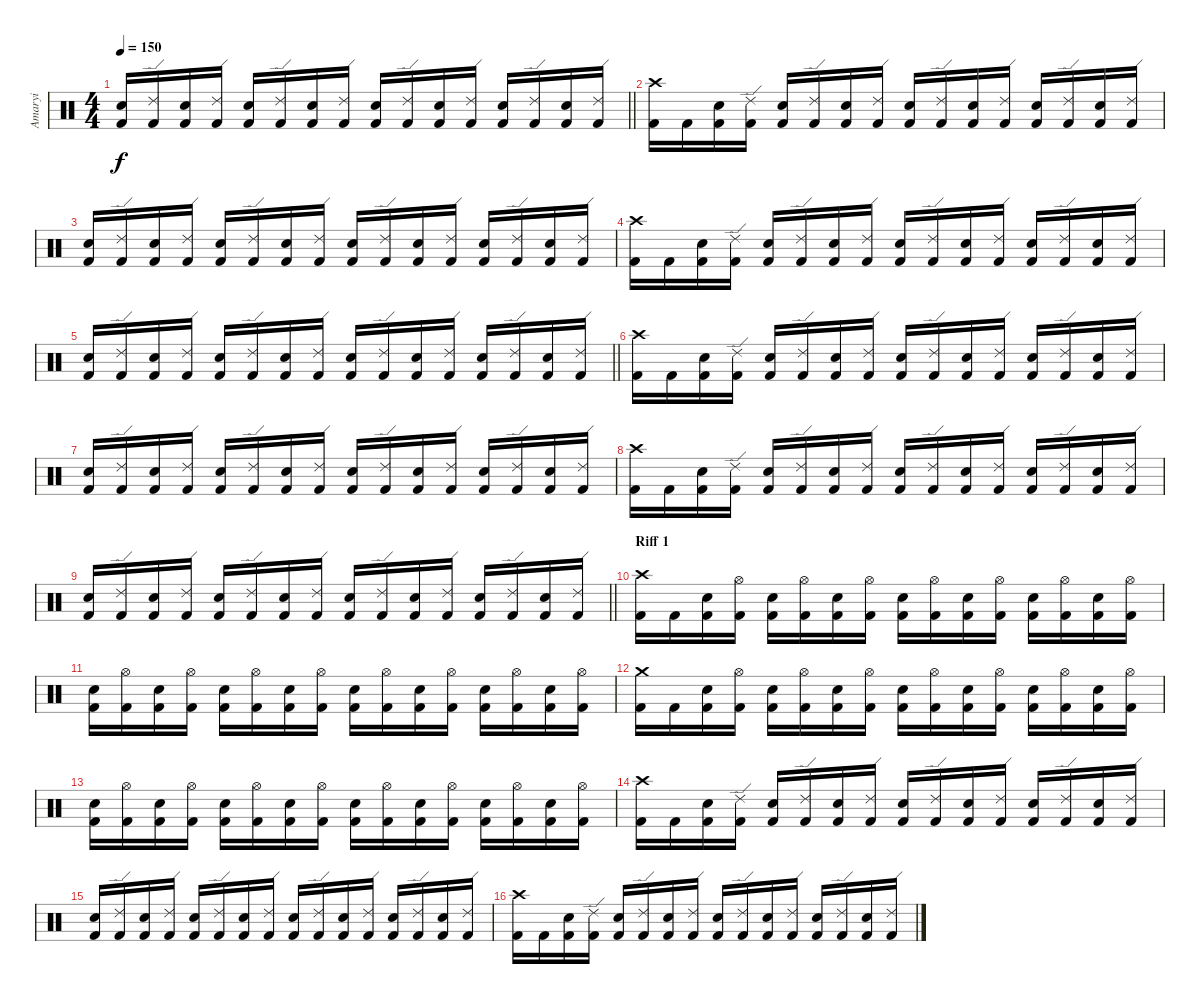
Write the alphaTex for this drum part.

\track ("Amaryi" "Amaryi") {instrument percussion}
\staff {score}
\articulation defaults
\ts (4 4)
\tempo 150
\clef neutral
\barLineRight lightlight
\ks c
("Electric Snare (hit)" "Kick (hit) 2").16{dy f} ("Ride (edge) 2" "Kick (hit) 2").16 ("Electric Snare (hit)" "Kick (hit) 2").16 ("Ride (edge) 2" "Kick (hit) 2").16 ("Electric Snare (hit)" "Kick (hit) 2").16 ("Ride (edge) 2" "Kick (hit) 2").16 ("Electric Snare (hit)" "Kick (hit) 2").16 ("Ride (edge) 2" "Kick (hit) 2").16 ("Electric Snare (hit)" "Kick (hit) 2").16 ("Ride (edge) 2" "Kick (hit) 2").16 ("Electric Snare (hit)" "Kick (hit) 2").16 ("Ride (edge) 2" "Kick (hit) 2").16 ("Electric Snare (hit)" "Kick (hit) 2").16 ("Ride (edge) 2" "Kick (hit) 2").16 ("Electric Snare (hit)" "Kick (hit) 2").16 ("Ride (edge) 2" "Kick (hit) 2").16 |
("Crash high (hit)" "Kick (hit) 2").16 "Kick (hit) 2".16 ("Electric Snare (hit)" "Kick (hit) 2").16 ("Ride (edge) 2" "Kick (hit) 2").16 ("Electric Snare (hit)" "Kick (hit) 2").16 ("Ride (edge) 2" "Kick (hit) 2").16 ("Electric Snare (hit)" "Kick (hit) 2").16 ("Ride (edge) 2" "Kick (hit) 2").16 ("Electric Snare (hit)" "Kick (hit) 2").16 ("Ride (edge) 2" "Kick (hit) 2").16 ("Electric Snare (hit)" "Kick (hit) 2").16 ("Ride (edge) 2" "Kick (hit) 2").16 ("Electric Snare (hit)" "Kick (hit) 2").16 ("Ride (edge) 2" "Kick (hit) 2").16 ("Electric Snare (hit)" "Kick (hit) 2").16 ("Ride (edge) 2" "Kick (hit) 2").16 |
("Electric Snare (hit)" "Kick (hit) 2").16 ("Ride (edge) 2" "Kick (hit) 2").16 ("Electric Snare (hit)" "Kick (hit) 2").16 ("Ride (edge) 2" "Kick (hit) 2").16 ("Electric Snare (hit)" "Kick (hit) 2").16 ("Ride (edge) 2" "Kick (hit) 2").16 ("Electric Snare (hit)" "Kick (hit) 2").16 ("Ride (edge) 2" "Kick (hit) 2").16 ("Electric Snare (hit)" "Kick (hit) 2").16 ("Ride (edge) 2" "Kick (hit) 2").16 ("Electric Snare (hit)" "Kick (hit) 2").16 ("Ride (edge) 2" "Kick (hit) 2").16 ("Electric Snare (hit)" "Kick (hit) 2").16 ("Ride (edge) 2" "Kick (hit) 2").16 ("Electric Snare (hit)" "Kick (hit) 2").16 ("Ride (edge) 2" "Kick (hit) 2").16 |
("Crash high (hit)" "Kick (hit) 2").16 "Kick (hit) 2".16 ("Electric Snare (hit)" "Kick (hit) 2").16 ("Ride (edge) 2" "Kick (hit) 2").16 ("Electric Snare (hit)" "Kick (hit) 2").16 ("Ride (edge) 2" "Kick (hit) 2").16 ("Electric Snare (hit)" "Kick (hit) 2").16 ("Ride (edge) 2" "Kick (hit) 2").16 ("Electric Snare (hit)" "Kick (hit) 2").16 ("Ride (edge) 2" "Kick (hit) 2").16 ("Electric Snare (hit)" "Kick (hit) 2").16 ("Ride (edge) 2" "Kick (hit) 2").16 ("Electric Snare (hit)" "Kick (hit) 2").16 ("Ride (edge) 2" "Kick (hit) 2").16 ("Electric Snare (hit)" "Kick (hit) 2").16 ("Ride (edge) 2" "Kick (hit) 2").16 |
\barLineRight lightlight
("Electric Snare (hit)" "Kick (hit) 2").16 ("Ride (edge) 2" "Kick (hit) 2").16 ("Electric Snare (hit)" "Kick (hit) 2").16 ("Ride (edge) 2" "Kick (hit) 2").16 ("Electric Snare (hit)" "Kick (hit) 2").16 ("Ride (edge) 2" "Kick (hit) 2").16 ("Electric Snare (hit)" "Kick (hit) 2").16 ("Ride (edge) 2" "Kick (hit) 2").16 ("Electric Snare (hit)" "Kick (hit) 2").16 ("Ride (edge) 2" "Kick (hit) 2").16 ("Electric Snare (hit)" "Kick (hit) 2").16 ("Ride (edge) 2" "Kick (hit) 2").16 ("Electric Snare (hit)" "Kick (hit) 2").16 ("Ride (edge) 2" "Kick (hit) 2").16 ("Electric Snare (hit)" "Kick (hit) 2").16 ("Ride (edge) 2" "Kick (hit) 2").16 |
("Crash high (hit)" "Kick (hit) 2").16 "Kick (hit) 2".16 ("Electric Snare (hit)" "Kick (hit) 2").16 ("Ride (edge) 2" "Kick (hit) 2").16 ("Electric Snare (hit)" "Kick (hit) 2").16 ("Ride (edge) 2" "Kick (hit) 2").16 ("Electric Snare (hit)" "Kick (hit) 2").16 ("Ride (edge) 2" "Kick (hit) 2").16 ("Electric Snare (hit)" "Kick (hit) 2").16 ("Ride (edge) 2" "Kick (hit) 2").16 ("Electric Snare (hit)" "Kick (hit) 2").16 ("Ride (edge) 2" "Kick (hit) 2").16 ("Electric Snare (hit)" "Kick (hit) 2").16 ("Ride (edge) 2" "Kick (hit) 2").16 ("Electric Snare (hit)" "Kick (hit) 2").16 ("Ride (edge) 2" "Kick (hit) 2").16 |
("Electric Snare (hit)" "Kick (hit) 2").16 ("Ride (edge) 2" "Kick (hit) 2").16 ("Electric Snare (hit)" "Kick (hit) 2").16 ("Ride (edge) 2" "Kick (hit) 2").16 ("Electric Snare (hit)" "Kick (hit) 2").16 ("Ride (edge) 2" "Kick (hit) 2").16 ("Electric Snare (hit)" "Kick (hit) 2").16 ("Ride (edge) 2" "Kick (hit) 2").16 ("Electric Snare (hit)" "Kick (hit) 2").16 ("Ride (edge) 2" "Kick (hit) 2").16 ("Electric Snare (hit)" "Kick (hit) 2").16 ("Ride (edge) 2" "Kick (hit) 2").16 ("Electric Snare (hit)" "Kick (hit) 2").16 ("Ride (edge) 2" "Kick (hit) 2").16 ("Electric Snare (hit)" "Kick (hit) 2").16 ("Ride (edge) 2" "Kick (hit) 2").16 |
("Crash high (hit)" "Kick (hit) 2").16 "Kick (hit) 2".16 ("Electric Snare (hit)" "Kick (hit) 2").16 ("Ride (edge) 2" "Kick (hit) 2").16 ("Electric Snare (hit)" "Kick (hit) 2").16 ("Ride (edge) 2" "Kick (hit) 2").16 ("Electric Snare (hit)" "Kick (hit) 2").16 ("Ride (edge) 2" "Kick (hit) 2").16 ("Electric Snare (hit)" "Kick (hit) 2").16 ("Ride (edge) 2" "Kick (hit) 2").16 ("Electric Snare (hit)" "Kick (hit) 2").16 ("Ride (edge) 2" "Kick (hit) 2").16 ("Electric Snare (hit)" "Kick (hit) 2").16 ("Ride (edge) 2" "Kick (hit) 2").16 ("Electric Snare (hit)" "Kick (hit) 2").16 ("Ride (edge) 2" "Kick (hit) 2").16 |
\barLineRight lightlight
("Electric Snare (hit)" "Kick (hit) 2").16 ("Ride (edge) 2" "Kick (hit) 2").16 ("Electric Snare (hit)" "Kick (hit) 2").16 ("Ride (edge) 2" "Kick (hit) 2").16 ("Electric Snare (hit)" "Kick (hit) 2").16 ("Ride (edge) 2" "Kick (hit) 2").16 ("Electric Snare (hit)" "Kick (hit) 2").16 ("Ride (edge) 2" "Kick (hit) 2").16 ("Electric Snare (hit)" "Kick (hit) 2").16 ("Ride (edge) 2" "Kick (hit) 2").16 ("Electric Snare (hit)" "Kick (hit) 2").16 ("Ride (edge) 2" "Kick (hit) 2").16 ("Electric Snare (hit)" "Kick (hit) 2").16 ("Ride (edge) 2" "Kick (hit) 2").16 ("Electric Snare (hit)" "Kick (hit) 2").16 ("Ride (edge) 2" "Kick (hit) 2").16 |
\section ("" "Riff 1")
("Crash high (hit)" "Kick (hit) 2").16 "Kick (hit) 2".16 ("Electric Snare (hit)" "Kick (hit) 2").16 ("Hi-Hat (open)" "Kick (hit) 2").16 ("Electric Snare (hit)" "Kick (hit) 2").16 ("Hi-Hat (open)" "Kick (hit) 2").16 ("Electric Snare (hit)" "Kick (hit) 2").16 ("Hi-Hat (open)" "Kick (hit) 2").16 ("Electric Snare (hit)" "Kick (hit) 2").16 ("Hi-Hat (open)" "Kick (hit) 2").16 ("Electric Snare (hit)" "Kick (hit) 2").16 ("Hi-Hat (open)" "Kick (hit) 2").16 ("Electric Snare (hit)" "Kick (hit) 2").16 ("Hi-Hat (open)" "Kick (hit) 2").16 ("Electric Snare (hit)" "Kick (hit) 2").16 ("Hi-Hat (open)" "Kick (hit) 2").16 |
("Electric Snare (hit)" "Kick (hit) 2").16 ("Hi-Hat (open)" "Kick (hit) 2").16 ("Electric Snare (hit)" "Kick (hit) 2").16 ("Hi-Hat (open)" "Kick (hit) 2").16 ("Electric Snare (hit)" "Kick (hit) 2").16 ("Hi-Hat (open)" "Kick (hit) 2").16 ("Electric Snare (hit)" "Kick (hit) 2").16 ("Hi-Hat (open)" "Kick (hit) 2").16 ("Electric Snare (hit)" "Kick (hit) 2").16 ("Hi-Hat (open)" "Kick (hit) 2").16 ("Electric Snare (hit)" "Kick (hit) 2").16 ("Hi-Hat (open)" "Kick (hit) 2").16 ("Electric Snare (hit)" "Kick (hit) 2").16 ("Hi-Hat (open)" "Kick (hit) 2").16 ("Electric Snare (hit)" "Kick (hit) 2").16 ("Hi-Hat (open)" "Kick (hit) 2").16 |
("Crash medium (hit)" "Kick (hit) 2").16 "Kick (hit) 2".16 ("Electric Snare (hit)" "Kick (hit) 2").16 ("Hi-Hat (open)" "Kick (hit) 2").16 ("Electric Snare (hit)" "Kick (hit) 2").16 ("Hi-Hat (open)" "Kick (hit) 2").16 ("Electric Snare (hit)" "Kick (hit) 2").16 ("Hi-Hat (open)" "Kick (hit) 2").16 ("Electric Snare (hit)" "Kick (hit) 2").16 ("Hi-Hat (open)" "Kick (hit) 2").16 ("Electric Snare (hit)" "Kick (hit) 2").16 ("Hi-Hat (open)" "Kick (hit) 2").16 ("Electric Snare (hit)" "Kick (hit) 2").16 ("Hi-Hat (open)" "Kick (hit) 2").16 ("Electric Snare (hit)" "Kick (hit) 2").16 ("Hi-Hat (open)" "Kick (hit) 2").16 |
("Electric Snare (hit)" "Kick (hit) 2").16 ("Hi-Hat (open)" "Kick (hit) 2").16 ("Electric Snare (hit)" "Kick (hit) 2").16 ("Hi-Hat (open)" "Kick (hit) 2").16 ("Electric Snare (hit)" "Kick (hit) 2").16 ("Hi-Hat (open)" "Kick (hit) 2").16 ("Electric Snare (hit)" "Kick (hit) 2").16 ("Hi-Hat (open)" "Kick (hit) 2").16 ("Electric Snare (hit)" "Kick (hit) 2").16 ("Hi-Hat (open)" "Kick (hit) 2").16 ("Electric Snare (hit)" "Kick (hit) 2").16 ("Hi-Hat (open)" "Kick (hit) 2").16 ("Electric Snare (hit)" "Kick (hit) 2").16 ("Hi-Hat (open)" "Kick (hit) 2").16 ("Electric Snare (hit)" "Kick (hit) 2").16 ("Hi-Hat (open)" "Kick (hit) 2").16 |
("Crash high (hit)" "Kick (hit) 2").16 "Kick (hit) 2".16 ("Electric Snare (hit)" "Kick (hit) 2").16 ("Ride (edge) 2" "Kick (hit) 2").16 ("Electric Snare (hit)" "Kick (hit) 2").16 ("Ride (edge) 2" "Kick (hit) 2").16 ("Electric Snare (hit)" "Kick (hit) 2").16 ("Ride (edge) 2" "Kick (hit) 2").16 ("Electric Snare (hit)" "Kick (hit) 2").16 ("Ride (edge) 2" "Kick (hit) 2").16 ("Electric Snare (hit)" "Kick (hit) 2").16 ("Ride (edge) 2" "Kick (hit) 2").16 ("Electric Snare (hit)" "Kick (hit) 2").16 ("Ride (edge) 2" "Kick (hit) 2").16 ("Electric Snare (hit)" "Kick (hit) 2").16 ("Ride (edge) 2" "Kick (hit) 2").16 |
("Electric Snare (hit)" "Kick (hit) 2").16 ("Ride (edge) 2" "Kick (hit) 2").16 ("Electric Snare (hit)" "Kick (hit) 2").16 ("Ride (edge) 2" "Kick (hit) 2").16 ("Electric Snare (hit)" "Kick (hit) 2").16 ("Ride (edge) 2" "Kick (hit) 2").16 ("Electric Snare (hit)" "Kick (hit) 2").16 ("Ride (edge) 2" "Kick (hit) 2").16 ("Electric Snare (hit)" "Kick (hit) 2").16 ("Ride (edge) 2" "Kick (hit) 2").16 ("Electric Snare (hit)" "Kick (hit) 2").16 ("Ride (edge) 2" "Kick (hit) 2").16 ("Electric Snare (hit)" "Kick (hit) 2").16 ("Ride (edge) 2" "Kick (hit) 2").16 ("Electric Snare (hit)" "Kick (hit) 2").16 ("Ride (edge) 2" "Kick (hit) 2").16 |
("Crash high (hit)" "Kick (hit) 2").16 "Kick (hit) 2".16 ("Electric Snare (hit)" "Kick (hit) 2").16 ("Ride (edge) 2" "Kick (hit) 2").16 ("Electric Snare (hit)" "Kick (hit) 2").16 ("Ride (edge) 2" "Kick (hit) 2").16 ("Electric Snare (hit)" "Kick (hit) 2").16 ("Ride (edge) 2" "Kick (hit) 2").16 ("Electric Snare (hit)" "Kick (hit) 2").16 ("Ride (edge) 2" "Kick (hit) 2").16 ("Electric Snare (hit)" "Kick (hit) 2").16 ("Ride (edge) 2" "Kick (hit) 2").16 ("Electric Snare (hit)" "Kick (hit) 2").16 ("Ride (edge) 2" "Kick (hit) 2").16 ("Electric Snare (hit)" "Kick (hit) 2").16 ("Ride (edge) 2" "Kick (hit) 2").16
